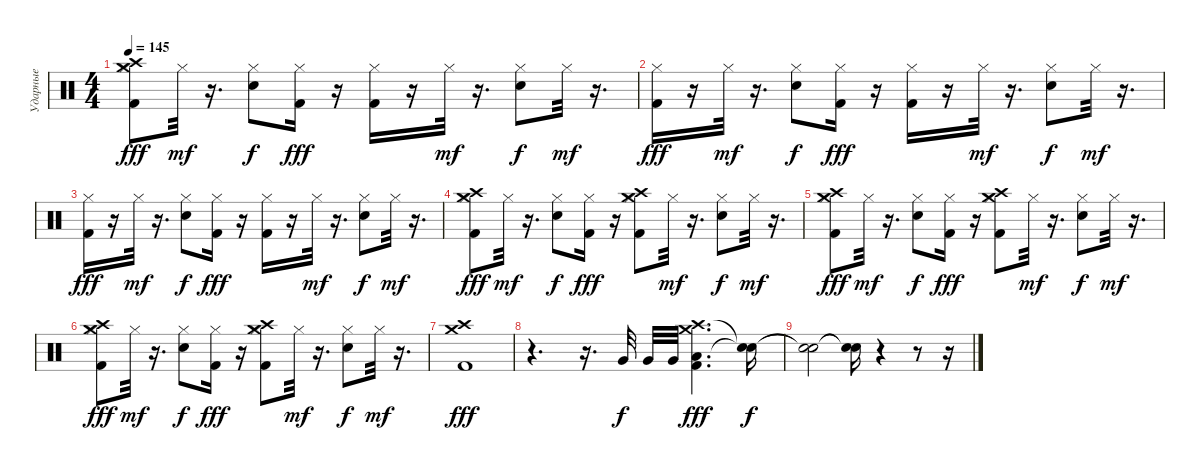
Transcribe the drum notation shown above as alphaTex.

\track ("Ударные" "Ударные") {instrument percussion}
\staff {score}
\articulation defaults
\ts (4 4)
\tempo 145
\clef neutral
\ks c
("Hi-Hat (closed)" "Crash high (hit)" "Crash medium (hit)" "Kick (hit) 2").8{dy fff} "Hi-Hat (closed)".32{dy mf} r.16{d} ("Snare (hit) 2" "Hi-Hat (closed)").8{dy f} ("Hi-Hat (closed)" "Kick (hit) 2").16{dy fff} r.16 ("Hi-Hat (closed)" "Kick (hit) 2").16 r.16 "Hi-Hat (closed)".32{dy mf} r.16{d} ("Snare (hit) 2" "Hi-Hat (closed)").8{dy f} "Hi-Hat (closed)".32{dy mf} r.16{d} |
("Hi-Hat (closed)" "Kick (hit) 2").16{dy fff} r.16 "Hi-Hat (closed)".32{dy mf} r.16{d} ("Snare (hit) 2" "Hi-Hat (closed)").8{dy f} ("Hi-Hat (closed)" "Kick (hit) 2").16{dy fff} r.16 ("Hi-Hat (closed)" "Kick (hit) 2").16 r.16 "Hi-Hat (closed)".32{dy mf} r.16{d} ("Snare (hit) 2" "Hi-Hat (closed)").8{dy f} "Hi-Hat (closed)".32{dy mf} r.16{d} |
("Hi-Hat (closed)" "Kick (hit) 2").16{dy fff} r.16 "Hi-Hat (closed)".32{dy mf} r.16{d} ("Snare (hit) 2" "Hi-Hat (closed)").8{dy f} ("Hi-Hat (closed)" "Kick (hit) 2").16{dy fff} r.16 ("Hi-Hat (closed)" "Kick (hit) 2").16 r.16 "Hi-Hat (closed)".32{dy mf} r.16{d} ("Snare (hit) 2" "Hi-Hat (closed)").8{dy f} "Hi-Hat (closed)".32{dy mf} r.16{d} |
("Hi-Hat (closed)" "Crash high (hit)" "Crash medium (hit)" "Kick (hit) 2").8{dy fff} "Hi-Hat (closed)".32{dy mf} r.16{d} ("Snare (hit) 2" "Hi-Hat (closed)").8{dy f} ("Hi-Hat (closed)" "Kick (hit) 2").16{dy fff} r.16 ("Hi-Hat (closed)" "Crash high (hit)" "Crash medium (hit)" "Kick (hit) 2").8 "Hi-Hat (closed)".32{dy mf} r.16{d} ("Snare (hit) 2" "Hi-Hat (closed)").8{dy f} "Hi-Hat (closed)".32{dy mf} r.16{d} |
("Hi-Hat (closed)" "Crash high (hit)" "Crash medium (hit)" "Kick (hit) 2").8{dy fff} "Hi-Hat (closed)".32{dy mf} r.16{d} ("Snare (hit) 2" "Hi-Hat (closed)").8{dy f} ("Hi-Hat (closed)" "Kick (hit) 2").16{dy fff} r.16 ("Hi-Hat (closed)" "Crash high (hit)" "Crash medium (hit)" "Kick (hit) 2").8 "Hi-Hat (closed)".32{dy mf} r.16{d} ("Snare (hit) 2" "Hi-Hat (closed)").8{dy f} "Hi-Hat (closed)".32{dy mf} r.16{d} |
("Hi-Hat (closed)" "Crash high (hit)" "Crash medium (hit)" "Kick (hit) 2").8{dy fff} "Hi-Hat (closed)".32{dy mf} r.16{d} ("Snare (hit) 2" "Hi-Hat (closed)").8{dy f} ("Hi-Hat (closed)" "Kick (hit) 2").16{dy fff} r.16 ("Hi-Hat (closed)" "Crash high (hit)" "Crash medium (hit)" "Kick (hit) 2").8 "Hi-Hat (closed)".32{dy mf} r.16{d} ("Snare (hit) 2" "Hi-Hat (closed)").8{dy f} "Hi-Hat (closed)".32{dy mf} r.16{d} |
("Crash high (hit)" "Crash medium (hit)" "Kick (hit) 2").1{dy fff} |
r.4{d} r.16{d} "Very Low Tom (hit)".32{dy f} "Very Low Tom (hit)".32 "Very Low Tom (hit)".32 ("Low Floor Tom (hit)" "Crash high (hit)" "Crash medium (hit)" "Kick (hit) 2").4{d dy fff} ("Snare (hit)"{t} "Snare (hit)"{t}).16{dy f} |
("Snare (hit)"{t} "Snare (hit)"{t}).2 ("Snare (hit)"{t} "Snare (hit)"{t}).16 r.4 r.8 r.16
